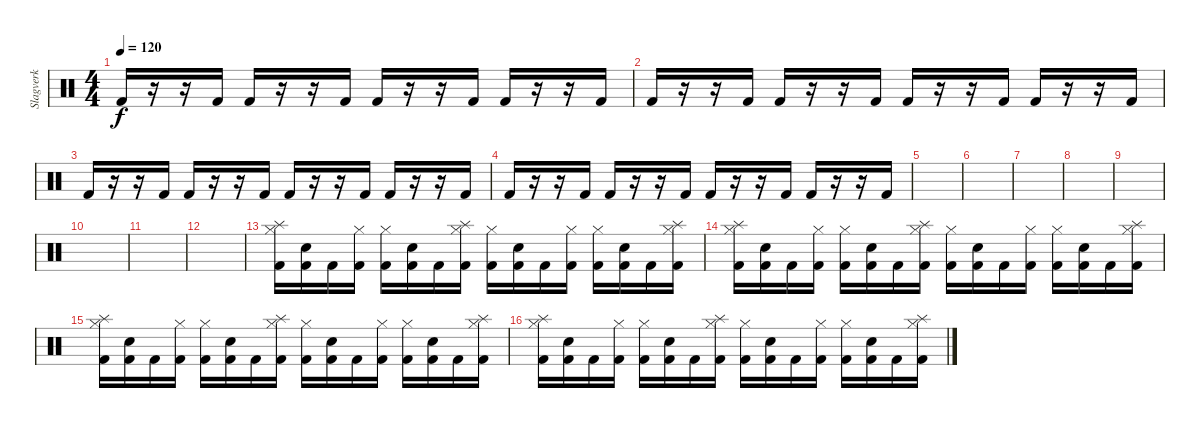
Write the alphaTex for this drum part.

\track ("Slagverk" "Slagverk") {instrument percussion}
\staff {score}
\articulation defaults
\ts (4 4)
\tempo 120
\clef neutral
\ks c "Kick (hit) 2".16{dy f}
r.16 r.16 "Kick (hit) 2".16 "Kick (hit) 2".16 r.16 r.16 "Kick (hit) 2".16 "Kick (hit) 2".16 r.16 r.16 "Kick (hit) 2".16 "Kick (hit) 2".16 r.16 r.16 "Kick (hit) 2".16 |
"Kick (hit) 2".16 r.16 r.16 "Kick (hit) 2".16 "Kick (hit) 2".16 r.16 r.16 "Kick (hit) 2".16 "Kick (hit) 2".16 r.16 r.16 "Kick (hit) 2".16 "Kick (hit) 2".16 r.16 r.16 "Kick (hit) 2".16 |
"Kick (hit) 2".16 r.16 r.16 "Kick (hit) 2".16 "Kick (hit) 2".16 r.16 r.16 "Kick (hit) 2".16 "Kick (hit) 2".16 r.16 r.16 "Kick (hit) 2".16 "Kick (hit) 2".16 r.16 r.16 "Kick (hit) 2".16 |
"Kick (hit) 2".16 r.16 r.16 "Kick (hit) 2".16 "Kick (hit) 2".16 r.16 r.16 "Kick (hit) 2".16 "Kick (hit) 2".16 r.16 r.16 "Kick (hit) 2".16 "Kick (hit) 2".16 r.16 r.16 "Kick (hit) 2".16 |
|
|
|
|
|
|
|
|
("Kick (hit) 2" "Hi-Hat (closed)" "Splash (hit)").16 ("Kick (hit) 2" "Electric Snare (hit)").16 "Kick (hit) 2".16 ("Kick (hit) 2" "Hi-Hat (closed)").16 ("Kick (hit) 2" "Hi-Hat (closed)").16 ("Kick (hit) 2" "Electric Snare (hit)").16 "Kick (hit) 2".16 ("Kick (hit) 2" "Hi-Hat (closed)" "Splash (hit)").16 ("Kick (hit) 2" "Hi-Hat (closed)").16 ("Kick (hit) 2" "Electric Snare (hit)").16 "Kick (hit) 2".16 ("Kick (hit) 2" "Hi-Hat (closed)").16 ("Kick (hit) 2" "Hi-Hat (closed)").16 ("Kick (hit) 2" "Electric Snare (hit)").16 "Kick (hit) 2".16 ("Kick (hit) 2" "Hi-Hat (closed)" "Splash (hit)").16 |
("Kick (hit) 2" "Hi-Hat (closed)" "Splash (hit)").16 ("Kick (hit) 2" "Electric Snare (hit)").16 "Kick (hit) 2".16 ("Kick (hit) 2" "Hi-Hat (closed)").16 ("Kick (hit) 2" "Hi-Hat (closed)").16 ("Kick (hit) 2" "Electric Snare (hit)").16 "Kick (hit) 2".16 ("Kick (hit) 2" "Hi-Hat (closed)" "Splash (hit)").16 ("Kick (hit) 2" "Hi-Hat (closed)").16 ("Kick (hit) 2" "Electric Snare (hit)").16 "Kick (hit) 2".16 ("Kick (hit) 2" "Hi-Hat (closed)").16 ("Kick (hit) 2" "Hi-Hat (closed)").16 ("Kick (hit) 2" "Electric Snare (hit)").16 "Kick (hit) 2".16 ("Kick (hit) 2" "Hi-Hat (closed)" "Splash (hit)").16 |
("Kick (hit) 2" "Hi-Hat (closed)" "Splash (hit)").16 ("Kick (hit) 2" "Electric Snare (hit)").16 "Kick (hit) 2".16 ("Kick (hit) 2" "Hi-Hat (closed)").16 ("Kick (hit) 2" "Hi-Hat (closed)").16 ("Kick (hit) 2" "Electric Snare (hit)").16 "Kick (hit) 2".16 ("Kick (hit) 2" "Hi-Hat (closed)" "Splash (hit)").16 ("Kick (hit) 2" "Hi-Hat (closed)").16 ("Kick (hit) 2" "Electric Snare (hit)").16 "Kick (hit) 2".16 ("Kick (hit) 2" "Hi-Hat (closed)").16 ("Kick (hit) 2" "Hi-Hat (closed)").16 ("Kick (hit) 2" "Electric Snare (hit)").16 "Kick (hit) 2".16 ("Kick (hit) 2" "Hi-Hat (closed)" "Splash (hit)").16 |
("Kick (hit) 2" "Hi-Hat (closed)" "Splash (hit)").16 ("Kick (hit) 2" "Electric Snare (hit)").16 "Kick (hit) 2".16 ("Kick (hit) 2" "Hi-Hat (closed)").16 ("Kick (hit) 2" "Hi-Hat (closed)").16 ("Kick (hit) 2" "Electric Snare (hit)").16 "Kick (hit) 2".16 ("Kick (hit) 2" "Hi-Hat (closed)" "Splash (hit)").16 ("Kick (hit) 2" "Hi-Hat (closed)").16 ("Kick (hit) 2" "Electric Snare (hit)").16 "Kick (hit) 2".16 ("Kick (hit) 2" "Hi-Hat (closed)").16 ("Kick (hit) 2" "Hi-Hat (closed)").16 ("Kick (hit) 2" "Electric Snare (hit)").16 "Kick (hit) 2".16 ("Kick (hit) 2" "Hi-Hat (closed)" "Splash (hit)").16
